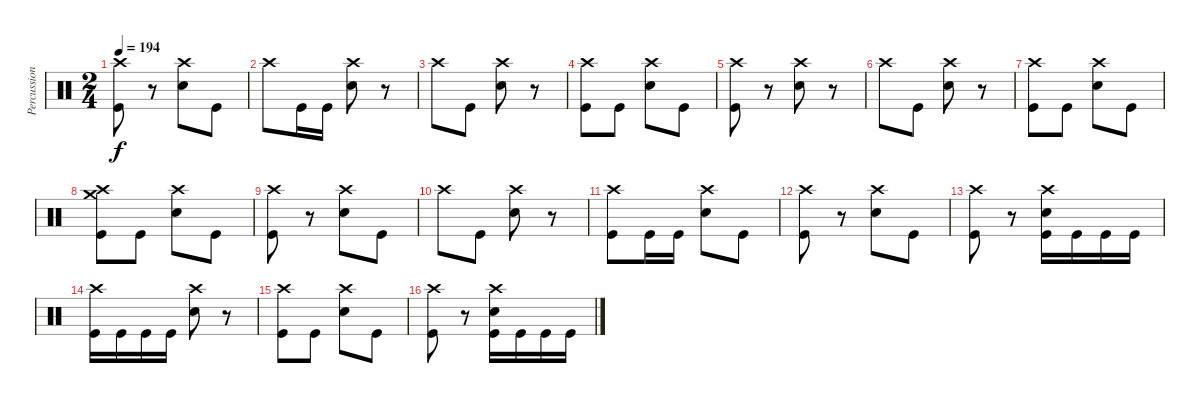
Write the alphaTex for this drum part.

\track ("Percussion" "Percussion") {instrument percussion}
\staff {score}
\articulation defaults
\ts (2 4)
\tempo 194
\clef neutral
\ks c
("Crash high (hit)" "Kick (hit)").8{dy f} r.8 ("Crash high (hit)" "Snare (hit) 2").8 "Kick (hit)".8 |
"Crash high (hit)".8 "Kick (hit)".16 "Kick (hit)".16 ("Crash high (hit)" "Snare (hit) 2").8 r.8 |
"Crash high (hit)".8 "Kick (hit)".8 ("Crash high (hit)" "Snare (hit) 2").8 r.8 |
("Crash high (hit)" "Kick (hit)").8 "Kick (hit)".8 ("Crash high (hit)" "Snare (hit) 2").8 "Kick (hit)".8 |
("Crash high (hit)" "Kick (hit)").8 r.8 ("Crash high (hit)" "Snare (hit) 2").8 r.8 |
"Crash high (hit)".8 "Kick (hit)".8 ("Crash high (hit)" "Snare (hit) 2").8 r.8 |
("Crash high (hit)" "Kick (hit)").8 "Kick (hit)".8 ("Crash high (hit)" "Snare (hit) 2").8 "Kick (hit)".8 |
("Crash high (hit)" "Crash medium (hit)" "Kick (hit)").8 "Kick (hit)".8 ("Crash high (hit)" "Snare (hit) 2").8 "Kick (hit)".8 |
("Crash high (hit)" "Kick (hit)").8 r.8 ("Crash high (hit)" "Snare (hit) 2").8 "Kick (hit)".8 |
"Crash high (hit)".8 "Kick (hit)".8 ("Crash high (hit)" "Snare (hit) 2").8 r.8 |
("Crash high (hit)" "Kick (hit)").8 "Kick (hit)".16 "Kick (hit)".16 ("Crash high (hit)" "Snare (hit) 2").8 "Kick (hit)".8 |
("Crash high (hit)" "Kick (hit)").8 r.8 ("Crash high (hit)" "Snare (hit) 2").8 "Kick (hit)".8 |
("Crash high (hit)" "Kick (hit)").8 r.8 ("Crash high (hit)" "Snare (hit) 2" "Kick (hit)").16 "Kick (hit)".16 "Kick (hit)".16 "Kick (hit)".16 |
("Crash high (hit)" "Kick (hit)").16 "Kick (hit)".16 "Kick (hit)".16 "Kick (hit)".16 ("Crash high (hit)" "Snare (hit) 2").8 r.8 |
("Crash high (hit)" "Kick (hit)").8 "Kick (hit)".8 ("Snare (hit) 2" "Crash high (hit)").8 "Kick (hit)".8 |
("Crash high (hit)" "Kick (hit)").8 r.8 ("Crash high (hit)" "Snare (hit) 2" "Kick (hit)").16 "Kick (hit)".16 "Kick (hit)".16 "Kick (hit)".16
